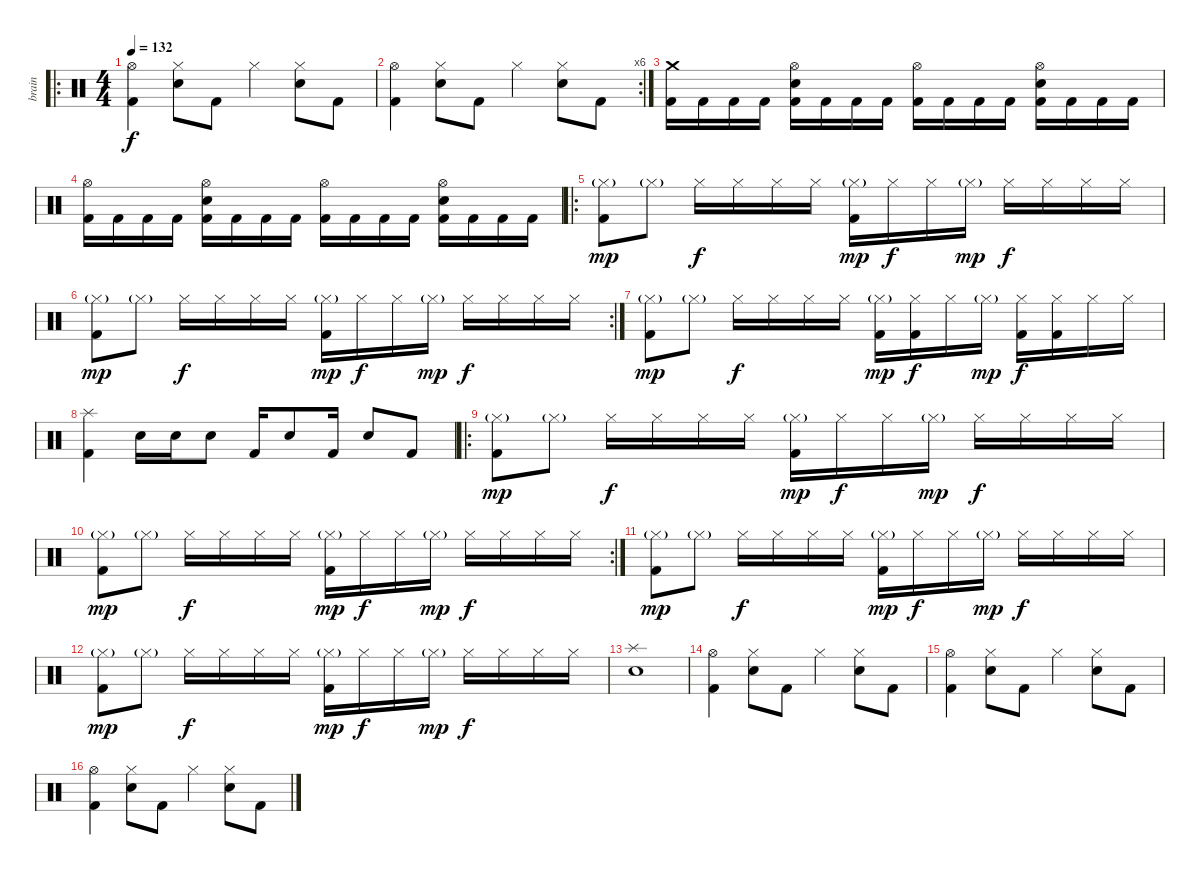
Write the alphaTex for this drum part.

\track ("brain" "brain") {instrument percussion}
\staff {score}
\articulation defaults
\ro
\ts (4 4)
\tempo 132
\clef neutral
\ks c
("Hi-Hat (open)" "Kick (hit) 2").4{dy f} ("Hi-Hat (closed)" "Electric Snare (hit)").8 "Kick (hit) 2".8 "Hi-Hat (closed)".4 ("Hi-Hat (closed)" "Electric Snare (hit)").8 "Kick (hit) 2".8 |
\rc 6
("Hi-Hat (open)" "Kick (hit) 2").4 ("Hi-Hat (closed)" "Electric Snare (hit)").8 "Kick (hit) 2".8 "Hi-Hat (closed)".4 ("Hi-Hat (closed)" "Electric Snare (hit)").8 "Kick (hit) 2".8 |
("Crash medium (hit)" "Kick (hit) 2").16 "Kick (hit) 2".16 "Kick (hit) 2".16 "Kick (hit) 2".16 ("Hi-Hat (open)" "Electric Snare (hit)" "Kick (hit) 2").16 "Kick (hit) 2".16 "Kick (hit) 2".16 "Kick (hit) 2".16 ("Hi-Hat (open)" "Kick (hit) 2").16 "Kick (hit) 2".16 "Kick (hit) 2".16 "Kick (hit) 2".16 ("Electric Snare (hit)" "Hi-Hat (open)" "Kick (hit) 2").16 "Kick (hit) 2".16 "Kick (hit) 2".16 "Kick (hit) 2".16 |
("Hi-Hat (open)" "Kick (hit) 2").16 "Kick (hit) 2".16 "Kick (hit) 2".16 "Kick (hit) 2".16 ("Hi-Hat (open)" "Electric Snare (hit)" "Kick (hit) 2").16 "Kick (hit) 2".16 "Kick (hit) 2".16 "Kick (hit) 2".16 ("Hi-Hat (open)" "Kick (hit) 2").16 "Kick (hit) 2".16 "Kick (hit) 2".16 "Kick (hit) 2".16 ("Electric Snare (hit)" "Hi-Hat (open)" "Kick (hit) 2").16 "Kick (hit) 2".16 "Kick (hit) 2".16 "Kick (hit) 2".16 |
\ro
("Hi-Hat (closed)"{g} "Kick (hit) 2").8{dy mp} "Hi-Hat (closed)"{g}.8 "Hi-Hat (closed)".16{dy f} "Hi-Hat (closed)".16 "Hi-Hat (closed)".16 "Hi-Hat (closed)".16 ("Hi-Hat (closed)"{g} "Kick (hit) 2").16{dy mp} "Hi-Hat (closed)".16{dy f} "Hi-Hat (closed)".16 "Hi-Hat (closed)"{g}.16{dy mp} "Hi-Hat (closed)".16{dy f} "Hi-Hat (closed)".16 "Hi-Hat (closed)".16 "Hi-Hat (closed)".16 |
\rc 2
("Hi-Hat (closed)"{g} "Kick (hit) 2").8{dy mp} "Hi-Hat (closed)"{g}.8 "Hi-Hat (closed)".16{dy f} "Hi-Hat (closed)".16 "Hi-Hat (closed)".16 "Hi-Hat (closed)".16 ("Hi-Hat (closed)"{g} "Kick (hit) 2").16{dy mp} "Hi-Hat (closed)".16{dy f} "Hi-Hat (closed)".16 "Hi-Hat (closed)"{g}.16{dy mp} "Hi-Hat (closed)".16{dy f} "Hi-Hat (closed)".16 "Hi-Hat (closed)".16 "Hi-Hat (closed)".16 |
("Hi-Hat (closed)"{g} "Kick (hit) 2").8{dy mp} "Hi-Hat (closed)"{g}.8 "Hi-Hat (closed)".16{dy f} "Hi-Hat (closed)".16 "Hi-Hat (closed)".16 "Hi-Hat (closed)".16 ("Hi-Hat (closed)"{g} "Kick (hit) 2").16{dy mp} ("Hi-Hat (closed)" "Kick (hit) 2").16{dy f} "Hi-Hat (closed)".16 "Hi-Hat (closed)"{g}.16{dy mp} ("Hi-Hat (closed)" "Kick (hit) 2").16{dy f} ("Hi-Hat (closed)" "Kick (hit) 2").16 "Hi-Hat (closed)".16 "Hi-Hat (closed)".16 |
("Splash (hit)" "Kick (hit) 2").4 "Electric Snare (hit)".16 "Electric Snare (hit)".16 "Electric Snare (hit)".8 "Kick (hit) 2".16 "Electric Snare (hit)".8 "Kick (hit) 2".16 "Electric Snare (hit)".8 "Kick (hit) 2".8 |
\ro
("Hi-Hat (closed)"{g} "Kick (hit) 2").8{dy mp} "Hi-Hat (closed)"{g}.8 "Hi-Hat (closed)".16{dy f} "Hi-Hat (closed)".16 "Hi-Hat (closed)".16 "Hi-Hat (closed)".16 ("Hi-Hat (closed)"{g} "Kick (hit) 2").16{dy mp} "Hi-Hat (closed)".16{dy f} "Hi-Hat (closed)".16 "Hi-Hat (closed)"{g}.16{dy mp} "Hi-Hat (closed)".16{dy f} "Hi-Hat (closed)".16 "Hi-Hat (closed)".16 "Hi-Hat (closed)".16 |
\rc 2
("Hi-Hat (closed)"{g} "Kick (hit) 2").8{dy mp} "Hi-Hat (closed)"{g}.8 "Hi-Hat (closed)".16{dy f} "Hi-Hat (closed)".16 "Hi-Hat (closed)".16 "Hi-Hat (closed)".16 ("Hi-Hat (closed)"{g} "Kick (hit) 2").16{dy mp} "Hi-Hat (closed)".16{dy f} "Hi-Hat (closed)".16 "Hi-Hat (closed)"{g}.16{dy mp} "Hi-Hat (closed)".16{dy f} "Hi-Hat (closed)".16 "Hi-Hat (closed)".16 "Hi-Hat (closed)".16 |
("Hi-Hat (closed)"{g} "Kick (hit) 2").8{dy mp} "Hi-Hat (closed)"{g}.8 "Hi-Hat (closed)".16{dy f} "Hi-Hat (closed)".16 "Hi-Hat (closed)".16 "Hi-Hat (closed)".16 ("Hi-Hat (closed)"{g} "Kick (hit) 2").16{dy mp} "Hi-Hat (closed)".16{dy f} "Hi-Hat (closed)".16 "Hi-Hat (closed)"{g}.16{dy mp} "Hi-Hat (closed)".16{dy f} "Hi-Hat (closed)".16 "Hi-Hat (closed)".16 "Hi-Hat (closed)".16 |
("Hi-Hat (closed)"{g} "Kick (hit) 2").8{dy mp} "Hi-Hat (closed)"{g}.8 "Hi-Hat (closed)".16{dy f} "Hi-Hat (closed)".16 "Hi-Hat (closed)".16 "Hi-Hat (closed)".16 ("Hi-Hat (closed)"{g} "Kick (hit) 2").16{dy mp} "Hi-Hat (closed)".16{dy f} "Hi-Hat (closed)".16 "Hi-Hat (closed)"{g}.16{dy mp} "Hi-Hat (closed)".16{dy f} "Hi-Hat (closed)".16 "Hi-Hat (closed)".16 "Hi-Hat (closed)".16 |
("Splash (hit)" "Electric Snare (hit)").1 |
("Hi-Hat (open)" "Kick (hit) 2").4 ("Hi-Hat (closed)" "Electric Snare (hit)").8 "Kick (hit) 2".8 "Hi-Hat (closed)".4 ("Hi-Hat (closed)" "Electric Snare (hit)").8 "Kick (hit) 2".8 |
("Hi-Hat (open)" "Kick (hit) 2").4 ("Hi-Hat (closed)" "Electric Snare (hit)").8 "Kick (hit) 2".8 "Hi-Hat (closed)".4 ("Hi-Hat (closed)" "Electric Snare (hit)").8 "Kick (hit) 2".8 |
("Hi-Hat (open)" "Kick (hit) 2").4 ("Hi-Hat (closed)" "Electric Snare (hit)").8 "Kick (hit) 2".8 "Hi-Hat (closed)".4 ("Hi-Hat (closed)" "Electric Snare (hit)").8 "Kick (hit) 2".8
